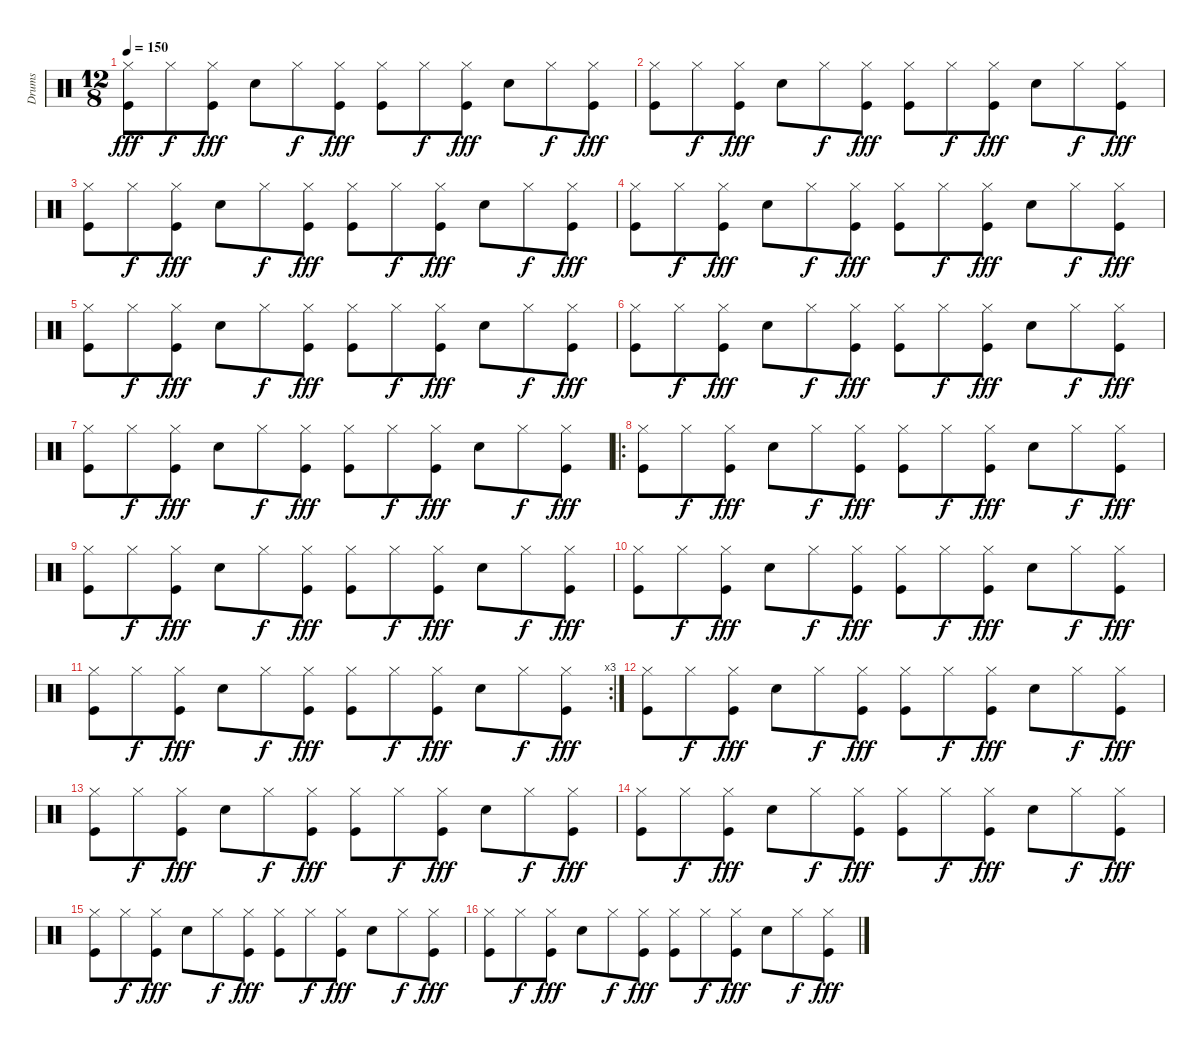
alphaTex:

\track ("Drums" "Drums") {instrument percussion}
\staff {score}
\articulation defaults
\ts (12 8)
\tempo 150
\clef neutral
\ks c
("Kick (hit)" "Hi-Hat (closed)").8{dy fff} "Hi-Hat (closed)".8{dy f} ("Kick (hit)" "Hi-Hat (closed)").8{dy fff} "Snare (hit) 2".8 "Hi-Hat (closed)".8{dy f} ("Kick (hit)" "Hi-Hat (closed)").8{dy fff} ("Kick (hit)" "Hi-Hat (closed)").8 "Hi-Hat (closed)".8{dy f} ("Kick (hit)" "Hi-Hat (closed)").8{dy fff} "Snare (hit) 2".8 "Hi-Hat (closed)".8{dy f} ("Kick (hit)" "Hi-Hat (closed)").8{dy fff} |
("Kick (hit)" "Hi-Hat (closed)").8 "Hi-Hat (closed)".8{dy f} ("Kick (hit)" "Hi-Hat (closed)").8{dy fff} "Snare (hit) 2".8 "Hi-Hat (closed)".8{dy f} ("Kick (hit)" "Hi-Hat (closed)").8{dy fff} ("Kick (hit)" "Hi-Hat (closed)").8 "Hi-Hat (closed)".8{dy f} ("Kick (hit)" "Hi-Hat (closed)").8{dy fff} "Snare (hit) 2".8 "Hi-Hat (closed)".8{dy f} ("Kick (hit)" "Hi-Hat (closed)").8{dy fff} |
("Kick (hit)" "Hi-Hat (closed)").8 "Hi-Hat (closed)".8{dy f} ("Kick (hit)" "Hi-Hat (closed)").8{dy fff} "Snare (hit) 2".8 "Hi-Hat (closed)".8{dy f} ("Kick (hit)" "Hi-Hat (closed)").8{dy fff} ("Kick (hit)" "Hi-Hat (closed)").8 "Hi-Hat (closed)".8{dy f} ("Kick (hit)" "Hi-Hat (closed)").8{dy fff} "Snare (hit) 2".8 "Hi-Hat (closed)".8{dy f} ("Kick (hit)" "Hi-Hat (closed)").8{dy fff} |
("Kick (hit)" "Hi-Hat (closed)").8 "Hi-Hat (closed)".8{dy f} ("Kick (hit)" "Hi-Hat (closed)").8{dy fff} "Snare (hit) 2".8 "Hi-Hat (closed)".8{dy f} ("Kick (hit)" "Hi-Hat (closed)").8{dy fff} ("Kick (hit)" "Hi-Hat (closed)").8 "Hi-Hat (closed)".8{dy f} ("Kick (hit)" "Hi-Hat (closed)").8{dy fff} "Snare (hit) 2".8 "Hi-Hat (closed)".8{dy f} ("Kick (hit)" "Hi-Hat (closed)").8{dy fff} |
("Kick (hit)" "Hi-Hat (closed)").8 "Hi-Hat (closed)".8{dy f} ("Kick (hit)" "Hi-Hat (closed)").8{dy fff} "Snare (hit) 2".8 "Hi-Hat (closed)".8{dy f} ("Kick (hit)" "Hi-Hat (closed)").8{dy fff} ("Kick (hit)" "Hi-Hat (closed)").8 "Hi-Hat (closed)".8{dy f} ("Kick (hit)" "Hi-Hat (closed)").8{dy fff} "Snare (hit) 2".8 "Hi-Hat (closed)".8{dy f} ("Kick (hit)" "Hi-Hat (closed)").8{dy fff} |
("Kick (hit)" "Hi-Hat (closed)").8 "Hi-Hat (closed)".8{dy f} ("Kick (hit)" "Hi-Hat (closed)").8{dy fff} "Snare (hit) 2".8 "Hi-Hat (closed)".8{dy f} ("Kick (hit)" "Hi-Hat (closed)").8{dy fff} ("Kick (hit)" "Hi-Hat (closed)").8 "Hi-Hat (closed)".8{dy f} ("Kick (hit)" "Hi-Hat (closed)").8{dy fff} "Snare (hit) 2".8 "Hi-Hat (closed)".8{dy f} ("Kick (hit)" "Hi-Hat (closed)").8{dy fff} |
("Kick (hit)" "Hi-Hat (closed)").8 "Hi-Hat (closed)".8{dy f} ("Kick (hit)" "Hi-Hat (closed)").8{dy fff} "Snare (hit) 2".8 "Hi-Hat (closed)".8{dy f} ("Kick (hit)" "Hi-Hat (closed)").8{dy fff} ("Kick (hit)" "Hi-Hat (closed)").8 "Hi-Hat (closed)".8{dy f} ("Kick (hit)" "Hi-Hat (closed)").8{dy fff} "Snare (hit) 2".8 "Hi-Hat (closed)".8{dy f} ("Kick (hit)" "Hi-Hat (closed)").8{dy fff} |
\ro
("Kick (hit)" "Hi-Hat (closed)").8 "Hi-Hat (closed)".8{dy f} ("Kick (hit)" "Hi-Hat (closed)").8{dy fff} "Snare (hit) 2".8 "Hi-Hat (closed)".8{dy f} ("Kick (hit)" "Hi-Hat (closed)").8{dy fff} ("Kick (hit)" "Hi-Hat (closed)").8 "Hi-Hat (closed)".8{dy f} ("Kick (hit)" "Hi-Hat (closed)").8{dy fff} "Snare (hit) 2".8 "Hi-Hat (closed)".8{dy f} ("Kick (hit)" "Hi-Hat (closed)").8{dy fff} |
("Kick (hit)" "Hi-Hat (closed)").8 "Hi-Hat (closed)".8{dy f} ("Kick (hit)" "Hi-Hat (closed)").8{dy fff} "Snare (hit) 2".8 "Hi-Hat (closed)".8{dy f} ("Kick (hit)" "Hi-Hat (closed)").8{dy fff} ("Kick (hit)" "Hi-Hat (closed)").8 "Hi-Hat (closed)".8{dy f} ("Kick (hit)" "Hi-Hat (closed)").8{dy fff} "Snare (hit) 2".8 "Hi-Hat (closed)".8{dy f} ("Kick (hit)" "Hi-Hat (closed)").8{dy fff} |
("Kick (hit)" "Hi-Hat (closed)").8 "Hi-Hat (closed)".8{dy f} ("Kick (hit)" "Hi-Hat (closed)").8{dy fff} "Snare (hit) 2".8 "Hi-Hat (closed)".8{dy f} ("Kick (hit)" "Hi-Hat (closed)").8{dy fff} ("Kick (hit)" "Hi-Hat (closed)").8 "Hi-Hat (closed)".8{dy f} ("Kick (hit)" "Hi-Hat (closed)").8{dy fff} "Snare (hit) 2".8 "Hi-Hat (closed)".8{dy f} ("Kick (hit)" "Hi-Hat (closed)").8{dy fff} |
\rc 3
("Kick (hit)" "Hi-Hat (closed)").8 "Hi-Hat (closed)".8{dy f} ("Kick (hit)" "Hi-Hat (closed)").8{dy fff} "Snare (hit) 2".8 "Hi-Hat (closed)".8{dy f} ("Kick (hit)" "Hi-Hat (closed)").8{dy fff} ("Kick (hit)" "Hi-Hat (closed)").8 "Hi-Hat (closed)".8{dy f} ("Kick (hit)" "Hi-Hat (closed)").8{dy fff} "Snare (hit) 2".8 "Hi-Hat (closed)".8{dy f} ("Kick (hit)" "Hi-Hat (closed)").8{dy fff} |
("Kick (hit)" "Hi-Hat (closed)").8 "Hi-Hat (closed)".8{dy f} ("Kick (hit)" "Hi-Hat (closed)").8{dy fff} "Snare (hit) 2".8 "Hi-Hat (closed)".8{dy f} ("Kick (hit)" "Hi-Hat (closed)").8{dy fff} ("Kick (hit)" "Hi-Hat (closed)").8 "Hi-Hat (closed)".8{dy f} ("Kick (hit)" "Hi-Hat (closed)").8{dy fff} "Snare (hit) 2".8 "Hi-Hat (closed)".8{dy f} ("Kick (hit)" "Hi-Hat (closed)").8{dy fff} |
("Kick (hit)" "Hi-Hat (closed)").8 "Hi-Hat (closed)".8{dy f} ("Kick (hit)" "Hi-Hat (closed)").8{dy fff} "Snare (hit) 2".8 "Hi-Hat (closed)".8{dy f} ("Kick (hit)" "Hi-Hat (closed)").8{dy fff} ("Kick (hit)" "Hi-Hat (closed)").8 "Hi-Hat (closed)".8{dy f} ("Kick (hit)" "Hi-Hat (closed)").8{dy fff} "Snare (hit) 2".8 "Hi-Hat (closed)".8{dy f} ("Kick (hit)" "Hi-Hat (closed)").8{dy fff} |
("Kick (hit)" "Hi-Hat (closed)").8 "Hi-Hat (closed)".8{dy f} ("Kick (hit)" "Hi-Hat (closed)").8{dy fff} "Snare (hit) 2".8 "Hi-Hat (closed)".8{dy f} ("Kick (hit)" "Hi-Hat (closed)").8{dy fff} ("Kick (hit)" "Hi-Hat (closed)").8 "Hi-Hat (closed)".8{dy f} ("Kick (hit)" "Hi-Hat (closed)").8{dy fff} "Snare (hit) 2".8 "Hi-Hat (closed)".8{dy f} ("Kick (hit)" "Hi-Hat (closed)").8{dy fff} |
("Kick (hit)" "Hi-Hat (closed)").8 "Hi-Hat (closed)".8{dy f} ("Kick (hit)" "Hi-Hat (closed)").8{dy fff} "Snare (hit) 2".8 "Hi-Hat (closed)".8{dy f} ("Kick (hit)" "Hi-Hat (closed)").8{dy fff} ("Kick (hit)" "Hi-Hat (closed)").8 "Hi-Hat (closed)".8{dy f} ("Kick (hit)" "Hi-Hat (closed)").8{dy fff} "Snare (hit) 2".8 "Hi-Hat (closed)".8{dy f} ("Kick (hit)" "Hi-Hat (closed)").8{dy fff} |
("Kick (hit)" "Hi-Hat (closed)").8 "Hi-Hat (closed)".8{dy f} ("Kick (hit)" "Hi-Hat (closed)").8{dy fff} "Snare (hit) 2".8 "Hi-Hat (closed)".8{dy f} ("Kick (hit)" "Hi-Hat (closed)").8{dy fff} ("Kick (hit)" "Hi-Hat (closed)").8 "Hi-Hat (closed)".8{dy f} ("Kick (hit)" "Hi-Hat (closed)").8{dy fff} "Snare (hit) 2".8 "Hi-Hat (closed)".8{dy f} ("Kick (hit)" "Hi-Hat (closed)").8{dy fff}
